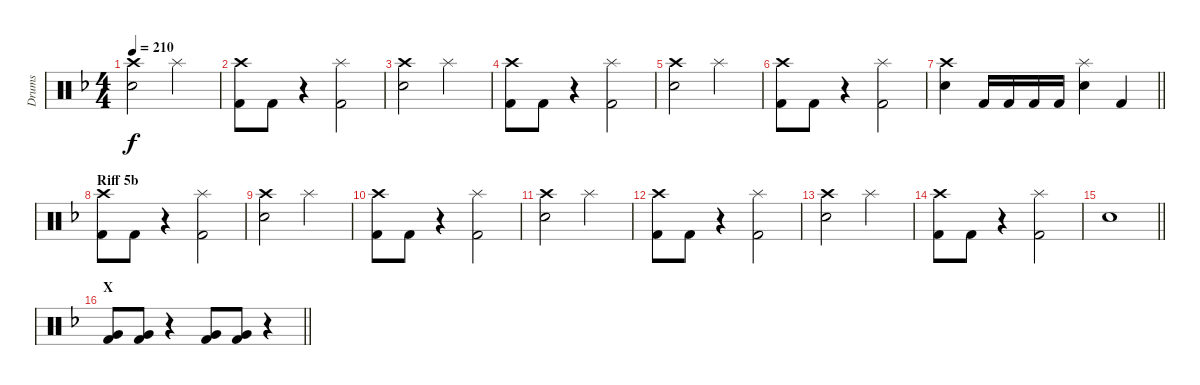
\track ("Drums" "Drums") {instrument percussion}
\staff {score}
\articulation defaults
\ts (4 4)
\tempo 210
\clef neutral
\ks dminor
("Crash high (hit)" "Electric Snare (hit)").2{dy f} "Splash (hit)".2 |
("Crash high (hit)" "Kick (hit) 2").8 "Kick (hit) 2".8 r.4 ("Splash (hit)" "Kick (hit) 2").2 |
("Crash high (hit)" "Electric Snare (hit)").2 "Splash (hit)".2 |
("Crash high (hit)" "Kick (hit) 2").8 "Kick (hit) 2".8 r.4 ("Splash (hit)" "Kick (hit) 2").2 |
("Crash high (hit)" "Electric Snare (hit)").2 "Splash (hit)".2 |
("Crash high (hit)" "Kick (hit) 2").8 "Kick (hit) 2".8 r.4 ("Splash (hit)" "Kick (hit) 2").2 |
\barLineRight lightlight
("Crash high (hit)" "Electric Snare (hit)").4 "Kick (hit) 2".16 "Kick (hit) 2".16 "Kick (hit) 2".16 "Kick (hit) 2".16 ("Splash (hit)" "Electric Snare (hit)").4 "Kick (hit) 2".4 |
\section ("" "Riff 5b")
("Crash high (hit)" "Kick (hit) 2").8 "Kick (hit) 2".8 r.4 ("Splash (hit)" "Kick (hit) 2").2 |
("Crash high (hit)" "Electric Snare (hit)").2 "Splash (hit)".2 |
("Crash high (hit)" "Kick (hit) 2").8 "Kick (hit) 2".8 r.4 ("Splash (hit)" "Kick (hit) 2").2 |
("Crash high (hit)" "Electric Snare (hit)").2 "Splash (hit)".2 |
("Crash high (hit)" "Kick (hit) 2").8 "Kick (hit) 2".8 r.4 ("Splash (hit)" "Kick (hit) 2").2 |
("Crash high (hit)" "Electric Snare (hit)").2 "Splash (hit)".2 |
("Crash high (hit)" "Kick (hit) 2").8 "Kick (hit) 2".8 r.4 ("Splash (hit)" "Kick (hit) 2").2 |
\barLineRight lightlight "Electric Snare (hit)".1
|
\section ("" "X")
\barLineRight lightlight
("Very Low Tom (hit)" "Kick (hit) 2").8 ("Very Low Tom (hit)" "Kick (hit) 2").8 r.4 ("Very Low Tom (hit)" "Kick (hit) 2").8 ("Very Low Tom (hit)" "Kick (hit) 2").8 r.4
